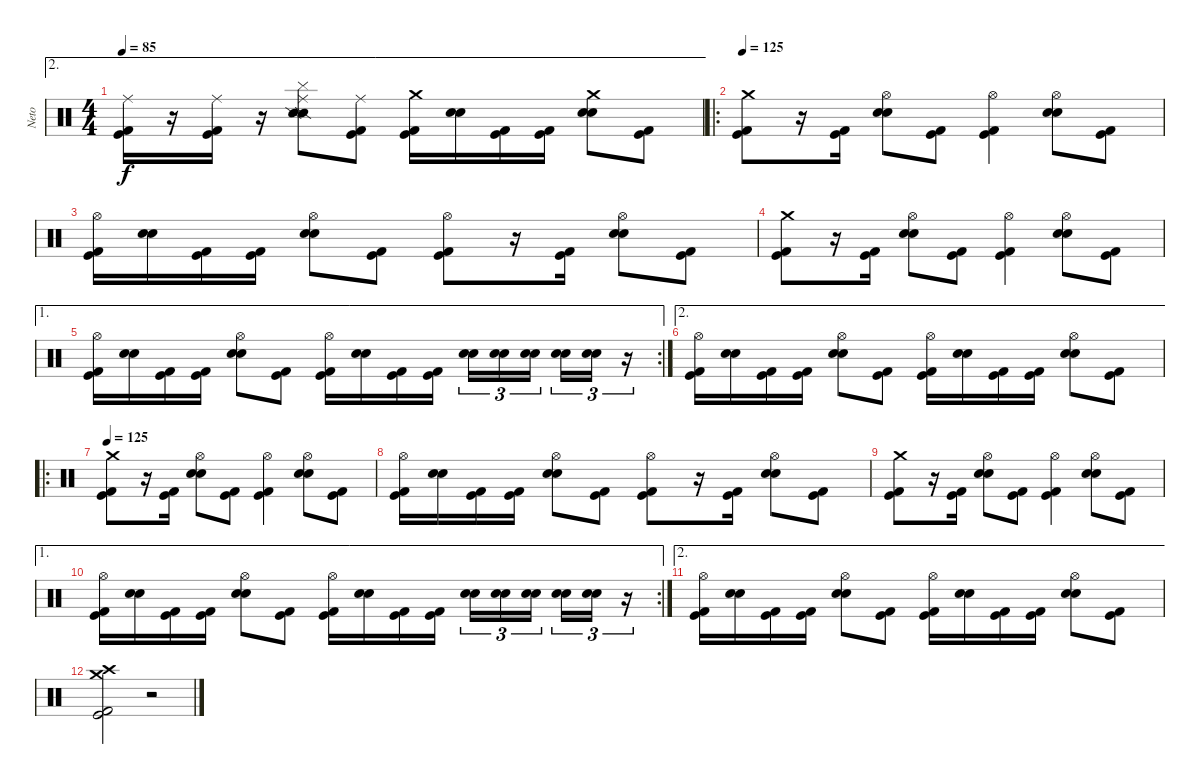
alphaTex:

\track ("Neto" "Neto") {instrument percussion}
\staff {score}
\articulation defaults
\ae 2
\ts (4 4)
\tempo 85
\clef neutral
\ks c
("Ride (middle)" "Kick (hit)" "Kick (hit) 2").16{dy f} r.16 ("Ride (middle)" "Kick (hit)" "Kick (hit) 2").16 r.16 ("Ride (middle)" "Snare (side stick) 2" "Snare (side stick) 2" "Cymbal (hit)").8 ("Ride (middle)" "Kick (hit)" "Kick (hit) 2").8 ("Crash medium (hit)" "Kick (hit)" "Kick (hit) 2").16 ("Snare (hit) 2" "Snare (hit) 2").16 ("Kick (hit)" "Kick (hit) 2").16 ("Kick (hit)" "Kick (hit) 2").16 ("Crash medium (hit)" "Snare (hit) 2" "Snare (hit) 2").8 ("Kick (hit)" "Kick (hit) 2").8 |
\ro
\tempo 125
("Crash medium (hit)" "Kick (hit)" "Kick (hit) 2").8 r.16 ("Kick (hit)" "Kick (hit) 2").16 ("Hi-Hat (open)" "Snare (hit) 2" "Snare (hit) 2").8 ("Kick (hit)" "Kick (hit) 2").8 ("Hi-Hat (open)" "Kick (hit)" "Kick (hit) 2").4 ("Hi-Hat (open)" "Snare (hit) 2" "Snare (hit) 2").8 ("Kick (hit)" "Kick (hit) 2").8 |
("Hi-Hat (open)" "Kick (hit)" "Kick (hit) 2").16 ("Snare (hit) 2" "Snare (hit) 2").16 ("Kick (hit)" "Kick (hit) 2").16 ("Kick (hit)" "Kick (hit) 2").16 ("Hi-Hat (open)" "Snare (hit) 2" "Snare (hit) 2").8 ("Kick (hit)" "Kick (hit) 2").8 ("Hi-Hat (open)" "Kick (hit)" "Kick (hit) 2").8 r.16 ("Kick (hit)" "Kick (hit) 2").16 ("Hi-Hat (open)" "Snare (hit) 2" "Snare (hit) 2").8 ("Kick (hit)" "Kick (hit) 2").8 |
("Crash medium (hit)" "Kick (hit)" "Kick (hit) 2").8 r.16 ("Kick (hit)" "Kick (hit) 2").16 ("Hi-Hat (open)" "Snare (hit) 2" "Snare (hit) 2").8 ("Kick (hit)" "Kick (hit) 2").8 ("Hi-Hat (open)" "Kick (hit)" "Kick (hit) 2").4 ("Hi-Hat (open)" "Snare (hit) 2" "Snare (hit) 2").8 ("Kick (hit)" "Kick (hit) 2").8 |
\ae 1
\rc 2
("Hi-Hat (open)" "Kick (hit)" "Kick (hit) 2").16 ("Snare (hit) 2" "Snare (hit) 2").16 ("Kick (hit)" "Kick (hit) 2").16 ("Kick (hit)" "Kick (hit) 2").16 ("Hi-Hat (open)" "Snare (hit) 2" "Snare (hit) 2").8 ("Kick (hit)" "Kick (hit) 2").8 ("Hi-Hat (open)" "Kick (hit)" "Kick (hit) 2").16 ("Snare (hit) 2" "Snare (hit) 2").16 ("Kick (hit)" "Kick (hit) 2").16 ("Kick (hit)" "Kick (hit) 2").16 ("Snare (hit) 2" "Snare (hit) 2").16{tu (3 2)} ("Snare (hit) 2" "Snare (hit) 2").16{tu (3 2)} ("Snare (hit) 2" "Snare (hit) 2").16{tu (3 2)} ("Snare (hit) 2" "Snare (hit) 2").16{tu (3 2)} ("Snare (hit) 2" "Snare (hit) 2").16{tu (3 2)} r.16{tu (3 2)} |
\ae 2
("Hi-Hat (open)" "Kick (hit)" "Kick (hit) 2").16 ("Snare (hit) 2" "Snare (hit) 2").16 ("Kick (hit)" "Kick (hit) 2").16 ("Kick (hit)" "Kick (hit) 2").16 ("Hi-Hat (open)" "Snare (hit) 2" "Snare (hit) 2").8 ("Kick (hit)" "Kick (hit) 2").8 ("Hi-Hat (open)" "Kick (hit)" "Kick (hit) 2").16 ("Snare (hit) 2" "Snare (hit) 2").16 ("Kick (hit)" "Kick (hit) 2").16 ("Kick (hit)" "Kick (hit) 2").16 ("Hi-Hat (open)" "Snare (hit) 2" "Snare (hit) 2").8 ("Kick (hit)" "Kick (hit) 2").8 |
\ro
\tempo 125
("Crash medium (hit)" "Kick (hit)" "Kick (hit) 2").8 r.16 ("Kick (hit)" "Kick (hit) 2").16 ("Hi-Hat (open)" "Snare (hit) 2" "Snare (hit) 2").8 ("Kick (hit)" "Kick (hit) 2").8 ("Hi-Hat (open)" "Kick (hit)" "Kick (hit) 2").4 ("Hi-Hat (open)" "Snare (hit) 2" "Snare (hit) 2").8 ("Kick (hit)" "Kick (hit) 2").8 |
("Hi-Hat (open)" "Kick (hit)" "Kick (hit) 2").16 ("Snare (hit) 2" "Snare (hit) 2").16 ("Kick (hit)" "Kick (hit) 2").16 ("Kick (hit)" "Kick (hit) 2").16 ("Hi-Hat (open)" "Snare (hit) 2" "Snare (hit) 2").8 ("Kick (hit)" "Kick (hit) 2").8 ("Hi-Hat (open)" "Kick (hit)" "Kick (hit) 2").8 r.16 ("Kick (hit)" "Kick (hit) 2").16 ("Hi-Hat (open)" "Snare (hit) 2" "Snare (hit) 2").8 ("Kick (hit)" "Kick (hit) 2").8 |
("Crash medium (hit)" "Kick (hit)" "Kick (hit) 2").8 r.16 ("Kick (hit)" "Kick (hit) 2").16 ("Hi-Hat (open)" "Snare (hit) 2" "Snare (hit) 2").8 ("Kick (hit)" "Kick (hit) 2").8 ("Hi-Hat (open)" "Kick (hit)" "Kick (hit) 2").4 ("Hi-Hat (open)" "Snare (hit) 2" "Snare (hit) 2").8 ("Kick (hit)" "Kick (hit) 2").8 |
\ae 1
\rc 2
("Hi-Hat (open)" "Kick (hit)" "Kick (hit) 2").16 ("Snare (hit) 2" "Snare (hit) 2").16 ("Kick (hit)" "Kick (hit) 2").16 ("Kick (hit)" "Kick (hit) 2").16 ("Hi-Hat (open)" "Snare (hit) 2" "Snare (hit) 2").8 ("Kick (hit)" "Kick (hit) 2").8 ("Hi-Hat (open)" "Kick (hit)" "Kick (hit) 2").16 ("Snare (hit) 2" "Snare (hit) 2").16 ("Kick (hit)" "Kick (hit) 2").16 ("Kick (hit)" "Kick (hit) 2").16 ("Snare (hit) 2" "Snare (hit) 2").16{tu (3 2)} ("Snare (hit) 2" "Snare (hit) 2").16{tu (3 2)} ("Snare (hit) 2" "Snare (hit) 2").16{tu (3 2)} ("Snare (hit) 2" "Snare (hit) 2").16{tu (3 2)} ("Snare (hit) 2" "Snare (hit) 2").16{tu (3 2)} r.16{tu (3 2)} |
\ae 2
("Hi-Hat (open)" "Kick (hit)" "Kick (hit) 2").16 ("Snare (hit) 2" "Snare (hit) 2").16 ("Kick (hit)" "Kick (hit) 2").16 ("Kick (hit)" "Kick (hit) 2").16 ("Hi-Hat (open)" "Snare (hit) 2" "Snare (hit) 2").8 ("Kick (hit)" "Kick (hit) 2").8 ("Hi-Hat (open)" "Kick (hit)" "Kick (hit) 2").16 ("Snare (hit) 2" "Snare (hit) 2").16 ("Kick (hit)" "Kick (hit) 2").16 ("Kick (hit)" "Kick (hit) 2").16 ("Hi-Hat (open)" "Snare (hit) 2" "Snare (hit) 2").8 ("Kick (hit)" "Kick (hit) 2").8 |
("Crash high (hit)" "Crash medium (hit)" "Kick (hit)" "Kick (hit) 2").2 r.2
